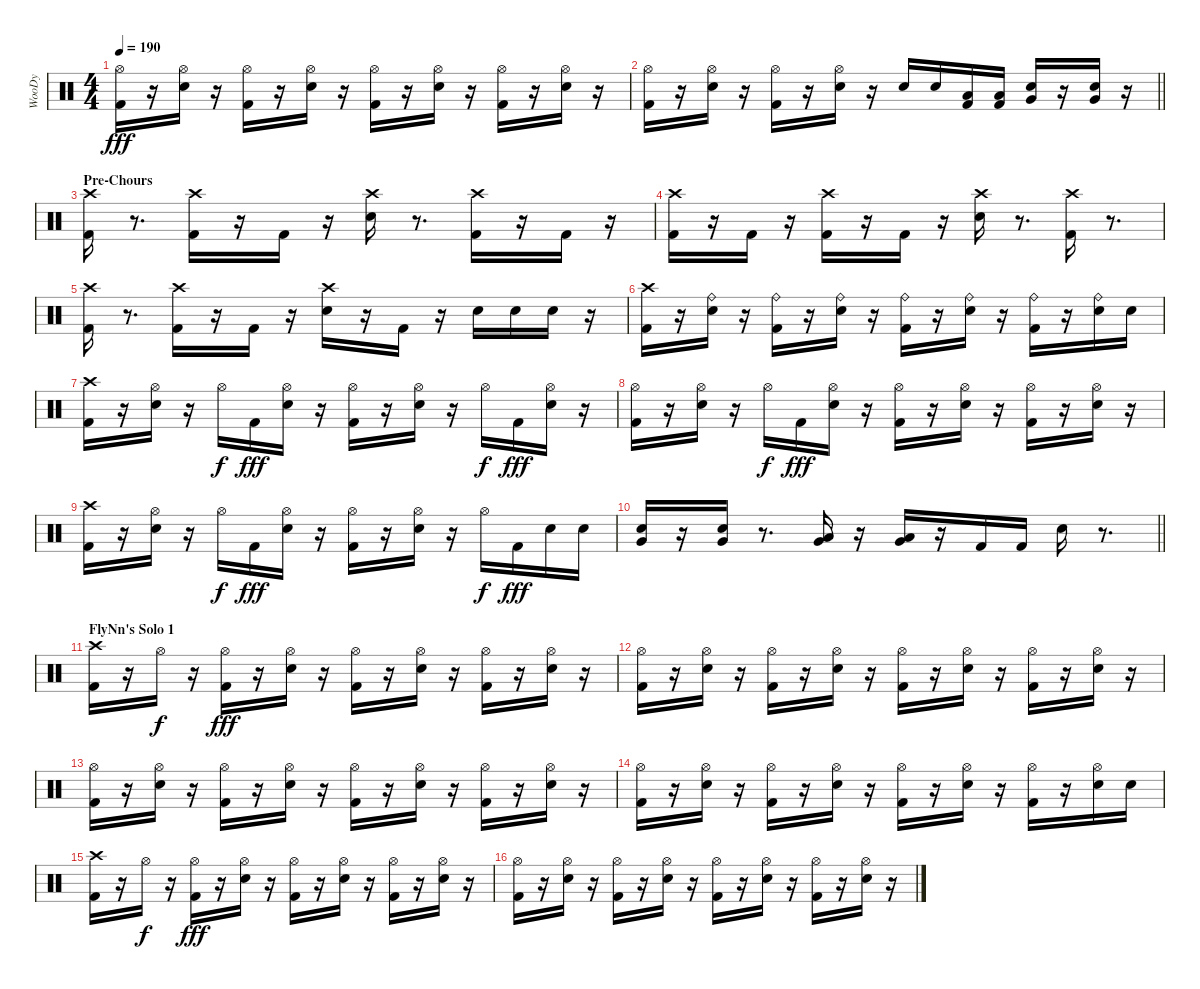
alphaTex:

\track ("WooDy" "WooDy") {instrument percussion}
\staff {score}
\articulation defaults
\ts (4 4)
\tempo 190
\clef neutral
\ks c
("Kick (hit) 2" "Hi-Hat (open)").16{dy fff} r.16 ("Snare (hit) 2" "Hi-Hat (open)").16 r.16 ("Kick (hit) 2" "Hi-Hat (open)").16 r.16 ("Snare (hit) 2" "Hi-Hat (open)").16 r.16 ("Kick (hit) 2" "Hi-Hat (open)").16 r.16 ("Snare (hit) 2" "Hi-Hat (open)").16 r.16 ("Kick (hit) 2" "Hi-Hat (open)").16 r.16 ("Snare (hit) 2" "Hi-Hat (open)").16 r.16 |
\barLineRight lightlight
("Kick (hit) 2" "Hi-Hat (open)").16 r.16 ("Snare (hit) 2" "Hi-Hat (open)").16 r.16 ("Kick (hit) 2" "Hi-Hat (open)").16 r.16 ("Snare (hit) 2" "Hi-Hat (open)").16 r.16 "Snare (hit) 2".16 "Snare (hit) 2".16 ("Kick (hit) 2" "Low Tom (hit)").16 ("Kick (hit) 2" "Low Tom (hit)").16 ("Snare (hit) 2" "Very Low Tom (hit)").16 r.16 ("Snare (hit) 2" "Very Low Tom (hit)").16 r.16 |
\section ("" "Pre-Chours")
("Kick (hit) 2" "Crash high (hit)").16 r.8{d} ("Kick (hit) 2" "Crash high (hit)").16 r.16 "Kick (hit) 2".16 r.16 ("Snare (hit) 2" "Crash high (hit)").16 r.8{d} ("Kick (hit) 2" "Crash high (hit)").16 r.16 "Kick (hit) 2".16 r.16 |
("Kick (hit) 2" "Crash high (hit)").16 r.16 "Kick (hit) 2".16 r.16 ("Kick (hit) 2" "Crash high (hit)").16 r.16 "Kick (hit) 2".16 r.16 ("Snare (hit) 2" "Crash high (hit)").16 r.8{d} ("Kick (hit) 2" "Crash high (hit)").16 r.8{d} |
("Kick (hit) 2" "Crash high (hit)").16 r.8{d} ("Kick (hit) 2" "Crash high (hit)").16 r.16 "Kick (hit) 2".16 r.16 ("Snare (hit) 2" "Crash high (hit)").16 r.16 "Kick (hit) 2".16 r.16 "Snare (hit) 2".16 "Snare (hit) 2".16 "Snare (hit) 2".16 r.16 |
("Kick (hit) 2" "Crash high (hit)").16 r.16 ("Snare (hit) 2" "Ride (bell)").16 r.16 ("Kick (hit) 2" "Ride (bell)").16 r.16 ("Snare (hit) 2" "Ride (bell)").16 r.16 ("Kick (hit) 2" "Ride (bell)").16 r.16 ("Snare (hit) 2" "Ride (bell)").16 r.16 ("Kick (hit) 2" "Ride (bell)").16 r.16 ("Snare (hit) 2" "Ride (bell)").16 "Snare (hit) 2".16 |
("Kick (hit) 2" "Crash high (hit)").16 r.16 ("Snare (hit) 2" "Hi-Hat (open)").16 r.16 "Hi-Hat (open)".16{dy f} "Kick (hit) 2".16{dy fff} ("Snare (hit) 2" "Hi-Hat (open)").16 r.16 ("Kick (hit) 2" "Hi-Hat (open)").16 r.16 ("Snare (hit) 2" "Hi-Hat (open)").16 r.16 "Hi-Hat (open)".16{dy f} "Kick (hit) 2".16{dy fff} ("Snare (hit) 2" "Hi-Hat (open)").16 r.16 |
("Kick (hit) 2" "Hi-Hat (open)").16 r.16 ("Snare (hit) 2" "Hi-Hat (open)").16 r.16 "Hi-Hat (open)".16{dy f} "Kick (hit) 2".16{dy fff} ("Snare (hit) 2" "Hi-Hat (open)").16 r.16 ("Kick (hit) 2" "Hi-Hat (open)").16 r.16 ("Snare (hit) 2" "Hi-Hat (open)").16 r.16 ("Kick (hit) 2" "Hi-Hat (open)").16 r.16 ("Snare (hit) 2" "Hi-Hat (open)").16 r.16 |
("Kick (hit) 2" "Crash high (hit)").16 r.16 ("Snare (hit) 2" "Hi-Hat (open)").16 r.16 "Hi-Hat (open)".16{dy f} "Kick (hit) 2".16{dy fff} ("Snare (hit) 2" "Hi-Hat (open)").16 r.16 ("Kick (hit) 2" "Hi-Hat (open)").16 r.16 ("Snare (hit) 2" "Hi-Hat (open)").16 r.16 "Hi-Hat (open)".16{dy f} "Kick (hit) 2".16{dy fff} "Snare (hit) 2".16 "Snare (hit) 2".16 |
\barLineRight lightlight
("Snare (hit) 2" "Very Low Tom (hit)").16 r.16 ("Snare (hit) 2" "Very Low Tom (hit)").16 r.8{d} ("Very Low Tom (hit)" "Low Tom (hit)").16 r.16 ("Very Low Tom (hit)" "Low Tom (hit)").16 r.16 "Kick (hit) 2".16 "Kick (hit) 2".16 "Snare (hit) 2".16 r.8{d} |
\section ("" "FlyNn's Solo 1")
("Kick (hit) 2" "Crash high (hit)").16 r.16 "Hi-Hat (open)".16{dy f} r.16 ("Kick (hit) 2" "Hi-Hat (open)").16{dy fff} r.16 ("Snare (hit) 2" "Hi-Hat (open)").16 r.16 ("Kick (hit) 2" "Hi-Hat (open)").16 r.16 ("Snare (hit) 2" "Hi-Hat (open)").16 r.16 ("Kick (hit) 2" "Hi-Hat (open)").16 r.16 ("Snare (hit) 2" "Hi-Hat (open)").16 r.16 |
("Kick (hit) 2" "Hi-Hat (open)").16 r.16 ("Snare (hit) 2" "Hi-Hat (open)").16 r.16 ("Kick (hit) 2" "Hi-Hat (open)").16 r.16 ("Snare (hit) 2" "Hi-Hat (open)").16 r.16 ("Kick (hit) 2" "Hi-Hat (open)").16 r.16 ("Snare (hit) 2" "Hi-Hat (open)").16 r.16 ("Kick (hit) 2" "Hi-Hat (open)").16 r.16 ("Snare (hit) 2" "Hi-Hat (open)").16 r.16 |
("Kick (hit) 2" "Hi-Hat (open)").16 r.16 ("Snare (hit) 2" "Hi-Hat (open)").16 r.16 ("Kick (hit) 2" "Hi-Hat (open)").16 r.16 ("Snare (hit) 2" "Hi-Hat (open)").16 r.16 ("Kick (hit) 2" "Hi-Hat (open)").16 r.16 ("Snare (hit) 2" "Hi-Hat (open)").16 r.16 ("Kick (hit) 2" "Hi-Hat (open)").16 r.16 ("Snare (hit) 2" "Hi-Hat (open)").16 r.16 |
("Kick (hit) 2" "Hi-Hat (open)").16 r.16 ("Snare (hit) 2" "Hi-Hat (open)").16 r.16 ("Kick (hit) 2" "Hi-Hat (open)").16 r.16 ("Snare (hit) 2" "Hi-Hat (open)").16 r.16 ("Kick (hit) 2" "Hi-Hat (open)").16 r.16 ("Snare (hit) 2" "Hi-Hat (open)").16 r.16 ("Kick (hit) 2" "Hi-Hat (open)").16 r.16 ("Snare (hit) 2" "Hi-Hat (open)").16 "Snare (hit) 2".16 |
("Kick (hit) 2" "Crash high (hit)").16 r.16 "Hi-Hat (open)".16{dy f} r.16 ("Kick (hit) 2" "Hi-Hat (open)").16{dy fff} r.16 ("Snare (hit) 2" "Hi-Hat (open)").16 r.16 ("Kick (hit) 2" "Hi-Hat (open)").16 r.16 ("Snare (hit) 2" "Hi-Hat (open)").16 r.16 ("Kick (hit) 2" "Hi-Hat (open)").16 r.16 ("Snare (hit) 2" "Hi-Hat (open)").16 r.16 |
("Kick (hit) 2" "Hi-Hat (open)").16 r.16 ("Snare (hit) 2" "Hi-Hat (open)").16 r.16 ("Kick (hit) 2" "Hi-Hat (open)").16 r.16 ("Snare (hit) 2" "Hi-Hat (open)").16 r.16 ("Kick (hit) 2" "Hi-Hat (open)").16 r.16 ("Snare (hit) 2" "Hi-Hat (open)").16 r.16 ("Kick (hit) 2" "Hi-Hat (open)").16 r.16 ("Snare (hit) 2" "Hi-Hat (open)").16 r.16
